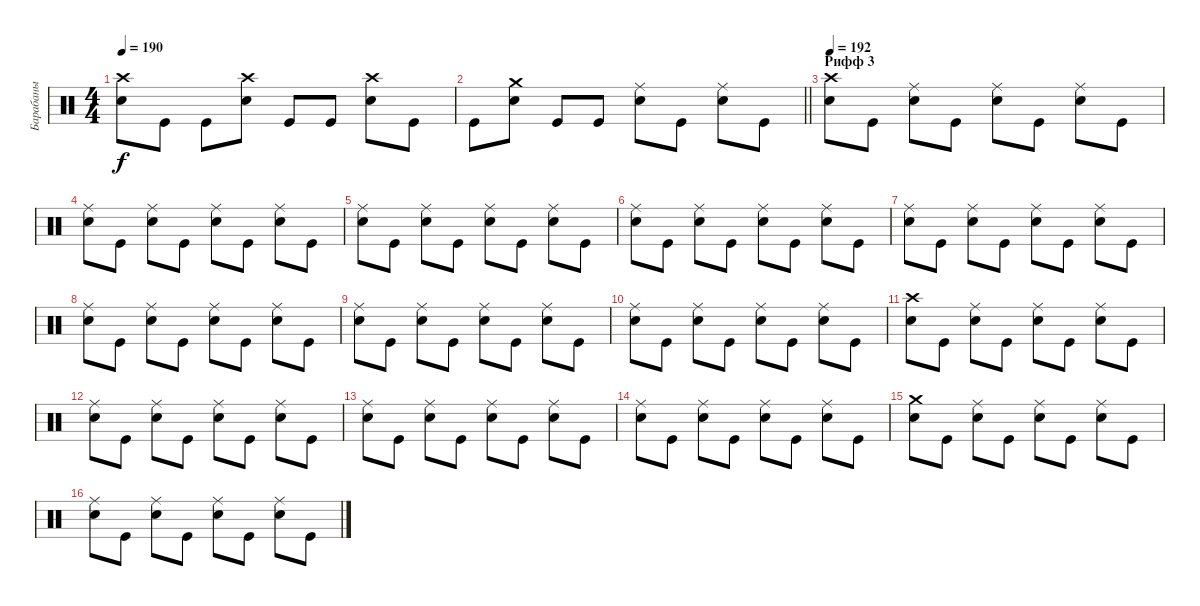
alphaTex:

\track ("Барабаны" "Барабаны") {instrument percussion}
\staff {score}
\articulation defaults
\ts (4 4)
\tempo 190
\clef neutral
\ks c
("Snare (hit) 2" "Crash high (hit)").8{dy f} "Kick (hit)".8 "Kick (hit)".8 ("Snare (hit) 2" "Crash high (hit)").8 "Kick (hit)".8 "Kick (hit)".8 ("Snare (hit) 2" "Crash high (hit)").8 "Kick (hit)".8 |
\barLineRight lightlight "Kick (hit)".8
("Snare (hit) 2" "Crash medium (hit)").8 "Kick (hit)".8 "Kick (hit)".8 ("Snare (hit) 2" "Ride (middle)").8 "Kick (hit)".8 ("Snare (hit) 2" "Ride (middle)").8 "Kick (hit)".8 |
\section ("" "Рифф 3")
\tempo 192
("Snare (hit) 2" "Crash high (hit)").8 "Kick (hit)".8 ("Snare (hit) 2" "Ride (middle)").8 "Kick (hit)".8 ("Snare (hit) 2" "Ride (middle)").8 "Kick (hit)".8 ("Snare (hit) 2" "Ride (middle)").8 "Kick (hit)".8 |
("Snare (hit) 2" "Ride (middle)").8 "Kick (hit)".8 ("Snare (hit) 2" "Ride (middle)").8 "Kick (hit)".8 ("Snare (hit) 2" "Ride (middle)").8 "Kick (hit)".8 ("Snare (hit) 2" "Ride (middle)").8 "Kick (hit)".8 |
("Snare (hit) 2" "Ride (middle)").8 "Kick (hit)".8 ("Snare (hit) 2" "Ride (middle)").8 "Kick (hit)".8 ("Snare (hit) 2" "Ride (middle)").8 "Kick (hit)".8 ("Snare (hit) 2" "Ride (middle)").8 "Kick (hit)".8 |
("Snare (hit) 2" "Ride (middle)").8 "Kick (hit)".8 ("Snare (hit) 2" "Ride (middle)").8 "Kick (hit)".8 ("Snare (hit) 2" "Ride (middle)").8 "Kick (hit)".8 ("Snare (hit) 2" "Ride (middle)").8 "Kick (hit)".8 |
("Snare (hit) 2" "Ride (middle)").8 "Kick (hit)".8 ("Snare (hit) 2" "Ride (middle)").8 "Kick (hit)".8 ("Snare (hit) 2" "Ride (middle)").8 "Kick (hit)".8 ("Snare (hit) 2" "Ride (middle)").8 "Kick (hit)".8 |
("Snare (hit) 2" "Ride (middle)").8 "Kick (hit)".8 ("Snare (hit) 2" "Ride (middle)").8 "Kick (hit)".8 ("Snare (hit) 2" "Ride (middle)").8 "Kick (hit)".8 ("Snare (hit) 2" "Ride (middle)").8 "Kick (hit)".8 |
("Snare (hit) 2" "Ride (middle)").8 "Kick (hit)".8 ("Snare (hit) 2" "Ride (middle)").8 "Kick (hit)".8 ("Snare (hit) 2" "Ride (middle)").8 "Kick (hit)".8 ("Snare (hit) 2" "Ride (middle)").8 "Kick (hit)".8 |
("Snare (hit) 2" "Ride (middle)").8 "Kick (hit)".8 ("Snare (hit) 2" "Ride (middle)").8 "Kick (hit)".8 ("Snare (hit) 2" "Ride (middle)").8 "Kick (hit)".8 ("Snare (hit) 2" "Ride (middle)").8 "Kick (hit)".8 |
("Snare (hit) 2" "Crash high (hit)").8 "Kick (hit)".8 ("Snare (hit) 2" "Ride (middle)").8 "Kick (hit)".8 ("Snare (hit) 2" "Ride (middle)").8 "Kick (hit)".8 ("Snare (hit) 2" "Ride (middle)").8 "Kick (hit)".8 |
("Snare (hit) 2" "Ride (middle)").8 "Kick (hit)".8 ("Snare (hit) 2" "Ride (middle)").8 "Kick (hit)".8 ("Snare (hit) 2" "Ride (middle)").8 "Kick (hit)".8 ("Snare (hit) 2" "Ride (middle)").8 "Kick (hit)".8 |
("Snare (hit) 2" "Ride (middle)").8 "Kick (hit)".8 ("Snare (hit) 2" "Ride (middle)").8 "Kick (hit)".8 ("Snare (hit) 2" "Ride (middle)").8 "Kick (hit)".8 ("Snare (hit) 2" "Ride (middle)").8 "Kick (hit)".8 |
("Snare (hit) 2" "Ride (middle)").8 "Kick (hit)".8 ("Snare (hit) 2" "Ride (middle)").8 "Kick (hit)".8 ("Snare (hit) 2" "Ride (middle)").8 "Kick (hit)".8 ("Snare (hit) 2" "Ride (middle)").8 "Kick (hit)".8 |
("Snare (hit) 2" "Crash medium (hit)").8 "Kick (hit)".8 ("Snare (hit) 2" "Ride (middle)").8 "Kick (hit)".8 ("Snare (hit) 2" "Ride (middle)").8 "Kick (hit)".8 ("Snare (hit) 2" "Ride (middle)").8 "Kick (hit)".8 |
("Snare (hit) 2" "Ride (middle)").8 "Kick (hit)".8 ("Snare (hit) 2" "Ride (middle)").8 "Kick (hit)".8 ("Snare (hit) 2" "Ride (middle)").8 "Kick (hit)".8 ("Snare (hit) 2" "Ride (middle)").8 "Kick (hit)".8
